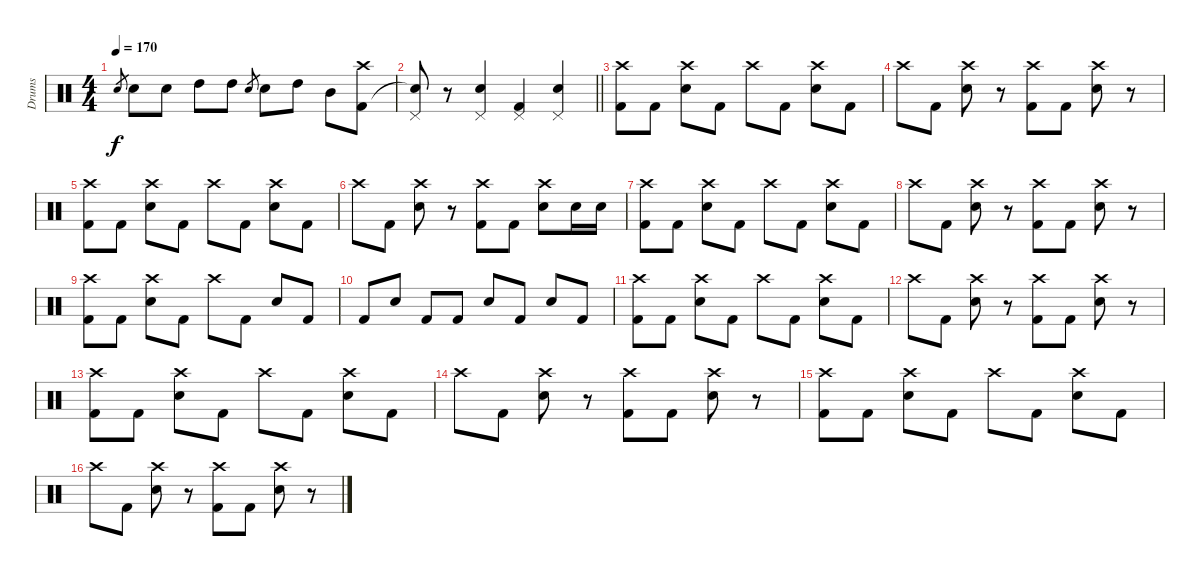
\track ("Drums" "Drums") {instrument percussion}
\staff {score}
\articulation defaults
\ts (4 4)
\tempo 170
\clef neutral
\ks c "Electric Snare (hit)".8{gr dy f} "Electric Snare (hit)".8 "Electric Snare (hit)".8 "High Tom (hit)".8 "High Tom (hit)".8 "Electric Snare (hit)".8{gr} "Electric Snare (hit)".8 "High Tom (hit)".8 "Mid Tom (hit)".8
("Crash high (hit)" "Kick (hit) 2").8 |
\barLineRight lightlight
("Pedal Hi-Hat (hit)" "Snare (hit)"{t}).8 r.8 ("Pedal Hi-Hat (hit)" "Electric Snare (hit)").4 ("Pedal Hi-Hat (hit)" "Kick (hit) 2").4 ("Pedal Hi-Hat (hit)" "Electric Snare (hit)").4 |
\section ("" "")
("Crash high (hit)" "Kick (hit) 2").8 "Kick (hit) 2".8 ("Crash high (hit)" "Electric Snare (hit)").8 "Kick (hit) 2".8 "Crash high (hit)".8 "Kick (hit) 2".8 ("Crash high (hit)" "Electric Snare (hit)").8 "Kick (hit) 2".8 |
"Crash high (hit)".8 "Kick (hit) 2".8 ("Crash high (hit)" "Electric Snare (hit)").8 r.8 ("Crash high (hit)" "Kick (hit) 2").8 "Kick (hit) 2".8 ("Crash high (hit)" "Electric Snare (hit)").8 r.8 |
("Crash high (hit)" "Kick (hit) 2").8 "Kick (hit) 2".8 ("Crash high (hit)" "Electric Snare (hit)").8 "Kick (hit) 2".8 "Crash high (hit)".8 "Kick (hit) 2".8 ("Crash high (hit)" "Electric Snare (hit)").8 "Kick (hit) 2".8 |
"Crash high (hit)".8 "Kick (hit) 2".8 ("Crash high (hit)" "Electric Snare (hit)").8 r.8 ("Crash high (hit)" "Kick (hit) 2").8 "Kick (hit) 2".8 ("Crash high (hit)" "Electric Snare (hit)").8 "Electric Snare (hit)".16 "Electric Snare (hit)".16 |
("Crash high (hit)" "Kick (hit) 2").8 "Kick (hit) 2".8 ("Crash high (hit)" "Electric Snare (hit)").8 "Kick (hit) 2".8 "Crash high (hit)".8 "Kick (hit) 2".8 ("Crash high (hit)" "Electric Snare (hit)").8 "Kick (hit) 2".8 |
"Crash high (hit)".8 "Kick (hit) 2".8 ("Crash high (hit)" "Electric Snare (hit)").8 r.8 ("Crash high (hit)" "Kick (hit) 2").8 "Kick (hit) 2".8 ("Crash high (hit)" "Electric Snare (hit)").8 r.8 |
("Crash high (hit)" "Kick (hit) 2").8 "Kick (hit) 2".8 ("Crash high (hit)" "Electric Snare (hit)").8 "Kick (hit) 2".8 "Crash high (hit)".8 "Kick (hit) 2".8 "Electric Snare (hit)".8 "Kick (hit) 2".8 |
"Kick (hit) 2".8 "Electric Snare (hit)".8 "Kick (hit) 2".8 "Kick (hit) 2".8 "Electric Snare (hit)".8 "Kick (hit) 2".8 "Electric Snare (hit)".8 "Kick (hit) 2".8 |
("Crash high (hit)" "Kick (hit) 2").8 "Kick (hit) 2".8 ("Crash high (hit)" "Electric Snare (hit)").8 "Kick (hit) 2".8 "Crash high (hit)".8 "Kick (hit) 2".8 ("Crash high (hit)" "Electric Snare (hit)").8 "Kick (hit) 2".8 |
"Crash high (hit)".8 "Kick (hit) 2".8 ("Crash high (hit)" "Electric Snare (hit)").8 r.8 ("Crash high (hit)" "Kick (hit) 2").8 "Kick (hit) 2".8 ("Crash high (hit)" "Electric Snare (hit)").8 r.8 |
("Crash high (hit)" "Kick (hit) 2").8 "Kick (hit) 2".8 ("Crash high (hit)" "Electric Snare (hit)").8 "Kick (hit) 2".8 "Crash high (hit)".8 "Kick (hit) 2".8 ("Crash high (hit)" "Electric Snare (hit)").8 "Kick (hit) 2".8 |
"Crash high (hit)".8 "Kick (hit) 2".8 ("Crash high (hit)" "Electric Snare (hit)").8 r.8 ("Crash high (hit)" "Kick (hit) 2").8 "Kick (hit) 2".8 ("Crash high (hit)" "Electric Snare (hit)").8 r.8 |
("Crash high (hit)" "Kick (hit) 2").8 "Kick (hit) 2".8 ("Crash high (hit)" "Electric Snare (hit)").8 "Kick (hit) 2".8 "Crash high (hit)".8 "Kick (hit) 2".8 ("Crash high (hit)" "Electric Snare (hit)").8 "Kick (hit) 2".8 |
"Crash high (hit)".8 "Kick (hit) 2".8 ("Crash high (hit)" "Electric Snare (hit)").8 r.8 ("Crash high (hit)" "Kick (hit) 2").8 "Kick (hit) 2".8 ("Crash high (hit)" "Electric Snare (hit)").8 r.8
